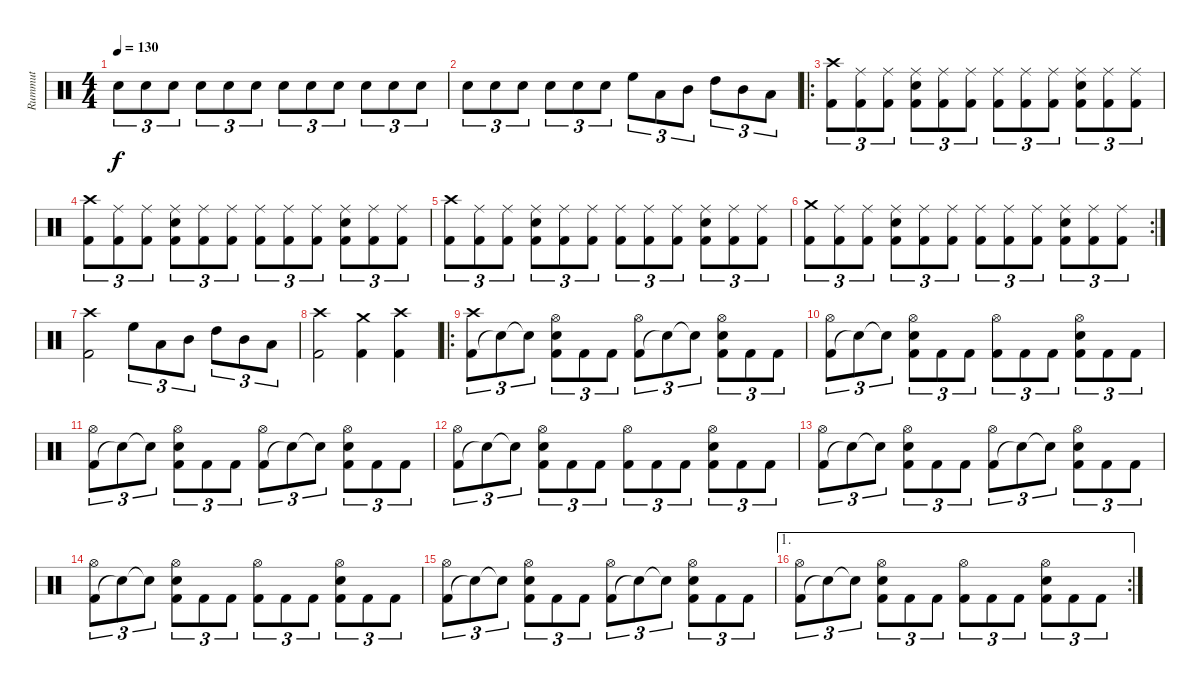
\track ("Rummut" "Rummut") {instrument percussion}
\staff {score}
\articulation defaults
\ts (4 4)
\tempo 130
\clef neutral
\ks c "Electric Snare (hit)".8{tu (3 2) dy f} "Electric Snare (hit)".8{tu (3 2)} "Electric Snare (hit)".8{tu (3 2)} "Electric Snare (hit)".8{tu (3 2)} "Electric Snare (hit)".8{tu (3 2)} "Electric Snare (hit)".8{tu (3 2)} "Electric Snare (hit)".8{tu (3 2)} "Electric Snare (hit)".8{tu (3 2)} "Electric Snare (hit)".8{tu (3 2)} "Electric Snare (hit)".8{tu (3 2)} "Electric Snare (hit)".8{tu (3 2)} "Electric Snare (hit)".8{tu (3 2)}
|
"Electric Snare (hit)".8{tu (3 2)} "Electric Snare (hit)".8{tu (3 2)} "Electric Snare (hit)".8{tu (3 2)} "Electric Snare (hit)".8{tu (3 2)} "Electric Snare (hit)".8{tu (3 2)} "Electric Snare (hit)".8{tu (3 2)} "High Floor Tom (hit)".8{tu (3 2)} "Low Tom (hit)".8{tu (3 2)} "Mid Tom (hit)".8{tu (3 2)} "High Tom (hit)".8{tu (3 2)} "Mid Tom (hit)".8{tu (3 2)} "Low Tom (hit)".8{tu (3 2)} |
\ro
("Kick (hit) 2" "Crash high (hit)").8{tu (3 2)} ("Kick (hit) 2" "Ride (middle)").8{tu (3 2)} ("Kick (hit) 2" "Ride (middle)").8{tu (3 2)} ("Kick (hit) 2" "Electric Snare (hit)" "Ride (middle)").8{tu (3 2)} ("Kick (hit) 2" "Ride (middle)").8{tu (3 2)} ("Kick (hit) 2" "Ride (middle)").8{tu (3 2)} ("Kick (hit) 2" "Ride (middle)").8{tu (3 2)} ("Kick (hit) 2" "Ride (middle)").8{tu (3 2)} ("Kick (hit) 2" "Ride (middle)").8{tu (3 2)} ("Kick (hit) 2" "Electric Snare (hit)" "Ride (middle)").8{tu (3 2)} ("Kick (hit) 2" "Ride (middle)").8{tu (3 2)} ("Kick (hit) 2" "Ride (middle)").8{tu (3 2)} |
("Kick (hit) 2" "Crash high (hit)").8{tu (3 2)} ("Kick (hit) 2" "Ride (middle)").8{tu (3 2)} ("Kick (hit) 2" "Ride (middle)").8{tu (3 2)} ("Kick (hit) 2" "Electric Snare (hit)" "Ride (middle)").8{tu (3 2)} ("Kick (hit) 2" "Ride (middle)").8{tu (3 2)} ("Kick (hit) 2" "Ride (middle)").8{tu (3 2)} ("Kick (hit) 2" "Ride (middle)").8{tu (3 2)} ("Kick (hit) 2" "Ride (middle)").8{tu (3 2)} ("Kick (hit) 2" "Ride (middle)").8{tu (3 2)} ("Kick (hit) 2" "Electric Snare (hit)" "Ride (middle)").8{tu (3 2)} ("Kick (hit) 2" "Ride (middle)").8{tu (3 2)} ("Kick (hit) 2" "Ride (middle)").8{tu (3 2)} |
("Kick (hit) 2" "Crash high (hit)").8{tu (3 2)} ("Kick (hit) 2" "Ride (middle)").8{tu (3 2)} ("Kick (hit) 2" "Ride (middle)").8{tu (3 2)} ("Kick (hit) 2" "Electric Snare (hit)" "Ride (middle)").8{tu (3 2)} ("Kick (hit) 2" "Ride (middle)").8{tu (3 2)} ("Kick (hit) 2" "Ride (middle)").8{tu (3 2)} ("Kick (hit) 2" "Ride (middle)").8{tu (3 2)} ("Kick (hit) 2" "Ride (middle)").8{tu (3 2)} ("Kick (hit) 2" "Ride (middle)").8{tu (3 2)} ("Kick (hit) 2" "Electric Snare (hit)" "Ride (middle)").8{tu (3 2)} ("Kick (hit) 2" "Ride (middle)").8{tu (3 2)} ("Kick (hit) 2" "Ride (middle)").8{tu (3 2)} |
\rc 2
("Kick (hit) 2" "Crash medium (hit)").8{tu (3 2)} ("Kick (hit) 2" "Ride (middle)").8{tu (3 2)} ("Kick (hit) 2" "Ride (middle)").8{tu (3 2)} ("Kick (hit) 2" "Electric Snare (hit)" "Ride (middle)").8{tu (3 2)} ("Kick (hit) 2" "Ride (middle)").8{tu (3 2)} ("Kick (hit) 2" "Ride (middle)").8{tu (3 2)} ("Kick (hit) 2" "Ride (middle)").8{tu (3 2)} ("Kick (hit) 2" "Ride (middle)").8{tu (3 2)} ("Kick (hit) 2" "Ride (middle)").8{tu (3 2)} ("Kick (hit) 2" "Electric Snare (hit)" "Ride (middle)").8{tu (3 2)} ("Kick (hit) 2" "Ride (middle)").8{tu (3 2)} ("Kick (hit) 2" "Ride (middle)").8{tu (3 2)} |
("Crash high (hit)" "Kick (hit) 2").2 "High Floor Tom (hit)".8{tu (3 2)} "Low Tom (hit)".8{tu (3 2)} "Mid Tom (hit)".8{tu (3 2)} "High Tom (hit)".8{tu (3 2)} "Mid Tom (hit)".8{tu (3 2)} "Low Tom (hit)".8{tu (3 2)} |
("Crash high (hit)" "Kick (hit) 2").2 ("Crash medium (hit)" "Kick (hit) 2").4 ("Crash high (hit)" "Kick (hit) 2").4 |
\ro
("Kick (hit) 2" "Crash high (hit)").8{tu (3 2)} "Snare (hit)"{t}.8{tu (3 2)} "Snare (hit)"{t}.8{tu (3 2)} ("Kick (hit) 2" "Electric Snare (hit)" "Hi-Hat (open)").8{tu (3 2)} "Kick (hit) 2".8{tu (3 2)} "Kick (hit) 2".8{tu (3 2)} ("Kick (hit) 2" "Hi-Hat (open)").8{tu (3 2)} "Snare (hit)"{t}.8{tu (3 2)} "Snare (hit)"{t}.8{tu (3 2)} ("Kick (hit) 2" "Electric Snare (hit)" "Hi-Hat (open)").8{tu (3 2)} "Kick (hit) 2".8{tu (3 2)} "Kick (hit) 2".8{tu (3 2)} |
("Kick (hit) 2" "Hi-Hat (open)").8{tu (3 2)} "Snare (hit)"{t}.8{tu (3 2)} "Snare (hit)"{t}.8{tu (3 2)} ("Kick (hit) 2" "Electric Snare (hit)" "Hi-Hat (open)").8{tu (3 2)} "Kick (hit) 2".8{tu (3 2)} "Kick (hit) 2".8{tu (3 2)} ("Kick (hit) 2" "Hi-Hat (open)").8{tu (3 2)} "Kick (hit) 2".8{tu (3 2)} "Kick (hit) 2".8{tu (3 2)} ("Kick (hit) 2" "Electric Snare (hit)" "Hi-Hat (open)").8{tu (3 2)} "Kick (hit) 2".8{tu (3 2)} "Kick (hit) 2".8{tu (3 2)} |
("Kick (hit) 2" "Hi-Hat (open)").8{tu (3 2)} "Snare (hit)"{t}.8{tu (3 2)} "Snare (hit)"{t}.8{tu (3 2)} ("Kick (hit) 2" "Electric Snare (hit)" "Hi-Hat (open)").8{tu (3 2)} "Kick (hit) 2".8{tu (3 2)} "Kick (hit) 2".8{tu (3 2)} ("Kick (hit) 2" "Hi-Hat (open)").8{tu (3 2)} "Snare (hit)"{t}.8{tu (3 2)} "Snare (hit)"{t}.8{tu (3 2)} ("Kick (hit) 2" "Electric Snare (hit)" "Hi-Hat (open)").8{tu (3 2)} "Kick (hit) 2".8{tu (3 2)} "Kick (hit) 2".8{tu (3 2)} |
("Kick (hit) 2" "Hi-Hat (open)").8{tu (3 2)} "Snare (hit)"{t}.8{tu (3 2)} "Snare (hit)"{t}.8{tu (3 2)} ("Kick (hit) 2" "Electric Snare (hit)" "Hi-Hat (open)").8{tu (3 2)} "Kick (hit) 2".8{tu (3 2)} "Kick (hit) 2".8{tu (3 2)} ("Kick (hit) 2" "Hi-Hat (open)").8{tu (3 2)} "Kick (hit) 2".8{tu (3 2)} "Kick (hit) 2".8{tu (3 2)} ("Kick (hit) 2" "Electric Snare (hit)" "Hi-Hat (open)").8{tu (3 2)} "Kick (hit) 2".8{tu (3 2)} "Kick (hit) 2".8{tu (3 2)} |
("Kick (hit) 2" "Hi-Hat (open)").8{tu (3 2)} "Snare (hit)"{t}.8{tu (3 2)} "Snare (hit)"{t}.8{tu (3 2)} ("Kick (hit) 2" "Electric Snare (hit)" "Hi-Hat (open)").8{tu (3 2)} "Kick (hit) 2".8{tu (3 2)} "Kick (hit) 2".8{tu (3 2)} ("Kick (hit) 2" "Hi-Hat (open)").8{tu (3 2)} "Snare (hit)"{t}.8{tu (3 2)} "Snare (hit)"{t}.8{tu (3 2)} ("Kick (hit) 2" "Electric Snare (hit)" "Hi-Hat (open)").8{tu (3 2)} "Kick (hit) 2".8{tu (3 2)} "Kick (hit) 2".8{tu (3 2)} |
("Kick (hit) 2" "Hi-Hat (open)").8{tu (3 2)} "Snare (hit)"{t}.8{tu (3 2)} "Snare (hit)"{t}.8{tu (3 2)} ("Kick (hit) 2" "Electric Snare (hit)" "Hi-Hat (open)").8{tu (3 2)} "Kick (hit) 2".8{tu (3 2)} "Kick (hit) 2".8{tu (3 2)} ("Kick (hit) 2" "Hi-Hat (open)").8{tu (3 2)} "Kick (hit) 2".8{tu (3 2)} "Kick (hit) 2".8{tu (3 2)} ("Kick (hit) 2" "Electric Snare (hit)" "Hi-Hat (open)").8{tu (3 2)} "Kick (hit) 2".8{tu (3 2)} "Kick (hit) 2".8{tu (3 2)} |
("Kick (hit) 2" "Hi-Hat (open)").8{tu (3 2)} "Snare (hit)"{t}.8{tu (3 2)} "Snare (hit)"{t}.8{tu (3 2)} ("Kick (hit) 2" "Electric Snare (hit)" "Hi-Hat (open)").8{tu (3 2)} "Kick (hit) 2".8{tu (3 2)} "Kick (hit) 2".8{tu (3 2)} ("Kick (hit) 2" "Hi-Hat (open)").8{tu (3 2)} "Snare (hit)"{t}.8{tu (3 2)} "Snare (hit)"{t}.8{tu (3 2)} ("Kick (hit) 2" "Electric Snare (hit)" "Hi-Hat (open)").8{tu (3 2)} "Kick (hit) 2".8{tu (3 2)} "Kick (hit) 2".8{tu (3 2)} |
\ae 1
\rc 2
("Kick (hit) 2" "Hi-Hat (open)").8{tu (3 2)} "Snare (hit)"{t}.8{tu (3 2)} "Snare (hit)"{t}.8{tu (3 2)} ("Kick (hit) 2" "Electric Snare (hit)" "Hi-Hat (open)").8{tu (3 2)} "Kick (hit) 2".8{tu (3 2)} "Kick (hit) 2".8{tu (3 2)} ("Kick (hit) 2" "Hi-Hat (open)").8{tu (3 2)} "Kick (hit) 2".8{tu (3 2)} "Kick (hit) 2".8{tu (3 2)} ("Kick (hit) 2" "Electric Snare (hit)" "Hi-Hat (open)").8{tu (3 2)} "Kick (hit) 2".8{tu (3 2)} "Kick (hit) 2".8{tu (3 2)}
